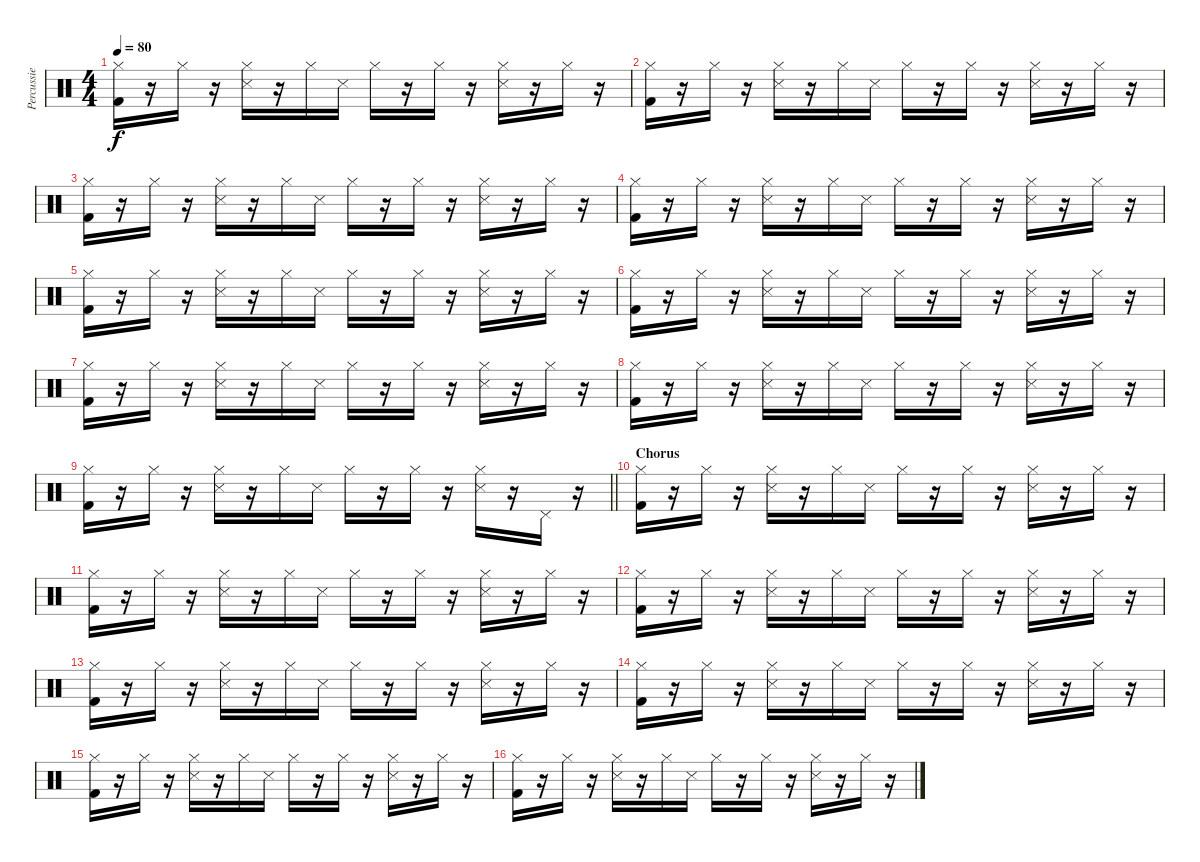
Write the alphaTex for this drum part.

\track ("Percussie" "Percussie") {instrument percussion}
\staff {score}
\articulation defaults
\ts (4 4)
\tempo 80
\clef neutral
\ks c
("Kick (hit) 2" "Hi-Hat (closed)").16{dy f} r.16 "Hi-Hat (closed)".16 r.16 ("Snare (side stick) 3" "Hi-Hat (closed)").16 r.16 "Hi-Hat (closed)".16 "Snare (side stick) 3".16 "Hi-Hat (closed)".16 r.16 "Hi-Hat (closed)".16 r.16 ("Snare (side stick) 3" "Hi-Hat (closed)").16 r.16 "Hi-Hat (closed)".16 r.16 |
("Kick (hit) 2" "Hi-Hat (closed)").16 r.16 "Hi-Hat (closed)".16 r.16 ("Snare (side stick) 3" "Hi-Hat (closed)").16 r.16 "Hi-Hat (closed)".16 "Snare (side stick) 3".16 "Hi-Hat (closed)".16 r.16 "Hi-Hat (closed)".16 r.16 ("Snare (side stick) 3" "Hi-Hat (closed)").16 r.16 "Hi-Hat (closed)".16 r.16 |
("Kick (hit) 2" "Hi-Hat (closed)").16 r.16 "Hi-Hat (closed)".16 r.16 ("Snare (side stick) 3" "Hi-Hat (closed)").16 r.16 "Hi-Hat (closed)".16 "Snare (side stick) 3".16 "Hi-Hat (closed)".16 r.16 "Hi-Hat (closed)".16 r.16 ("Snare (side stick) 3" "Hi-Hat (closed)").16 r.16 "Hi-Hat (closed)".16 r.16 |
("Kick (hit) 2" "Hi-Hat (closed)").16 r.16 "Hi-Hat (closed)".16 r.16 ("Snare (side stick) 3" "Hi-Hat (closed)").16 r.16 "Hi-Hat (closed)".16 "Snare (side stick) 3".16 "Hi-Hat (closed)".16 r.16 "Hi-Hat (closed)".16 r.16 ("Snare (side stick) 3" "Hi-Hat (closed)").16 r.16 "Hi-Hat (closed)".16 r.16 |
("Kick (hit) 2" "Hi-Hat (closed)").16 r.16 "Hi-Hat (closed)".16 r.16 ("Snare (side stick) 3" "Hi-Hat (closed)").16 r.16 "Hi-Hat (closed)".16 "Snare (side stick) 3".16 "Hi-Hat (closed)".16 r.16 "Hi-Hat (closed)".16 r.16 ("Snare (side stick) 3" "Hi-Hat (closed)").16 r.16 "Hi-Hat (closed)".16 r.16 |
("Kick (hit) 2" "Hi-Hat (closed)").16 r.16 "Hi-Hat (closed)".16 r.16 ("Snare (side stick) 3" "Hi-Hat (closed)").16 r.16 "Hi-Hat (closed)".16 "Snare (side stick) 3".16 "Hi-Hat (closed)".16 r.16 "Hi-Hat (closed)".16 r.16 ("Snare (side stick) 3" "Hi-Hat (closed)").16 r.16 "Hi-Hat (closed)".16 r.16 |
("Kick (hit) 2" "Hi-Hat (closed)").16 r.16 "Hi-Hat (closed)".16 r.16 ("Snare (side stick) 3" "Hi-Hat (closed)").16 r.16 "Hi-Hat (closed)".16 "Snare (side stick) 3".16 "Hi-Hat (closed)".16 r.16 "Hi-Hat (closed)".16 r.16 ("Snare (side stick) 3" "Hi-Hat (closed)").16 r.16 "Hi-Hat (closed)".16 r.16 |
("Kick (hit) 2" "Hi-Hat (closed)").16 r.16 "Hi-Hat (closed)".16 r.16 ("Snare (side stick) 3" "Hi-Hat (closed)").16 r.16 "Hi-Hat (closed)".16 "Snare (side stick) 3".16 "Hi-Hat (closed)".16 r.16 "Hi-Hat (closed)".16 r.16 ("Snare (side stick) 3" "Hi-Hat (closed)").16 r.16 "Hi-Hat (closed)".16 r.16 |
\barLineRight lightlight
("Kick (hit) 2" "Hi-Hat (closed)").16 r.16 "Hi-Hat (closed)".16 r.16 ("Snare (side stick) 3" "Hi-Hat (closed)").16 r.16 "Hi-Hat (closed)".16 "Snare (side stick) 3".16 "Hi-Hat (closed)".16 r.16 "Hi-Hat (closed)".16 r.16 ("Snare (side stick) 3" "Hi-Hat (closed)").16 r.16 "Pedal Hi-Hat (hit)".16 r.16 |
\section ("" "Chorus")
("Kick (hit) 2" "Hi-Hat (closed)").16 r.16 "Hi-Hat (closed)".16 r.16 ("Snare (side stick) 3" "Hi-Hat (closed)").16 r.16 "Hi-Hat (closed)".16 "Snare (side stick) 3".16 "Hi-Hat (closed)".16 r.16 "Hi-Hat (closed)".16 r.16 ("Snare (side stick) 3" "Hi-Hat (closed)").16 r.16 "Hi-Hat (closed)".16 r.16 |
("Kick (hit) 2" "Hi-Hat (closed)").16 r.16 "Hi-Hat (closed)".16 r.16 ("Snare (side stick) 3" "Hi-Hat (closed)").16 r.16 "Hi-Hat (closed)".16 "Snare (side stick) 3".16 "Hi-Hat (closed)".16 r.16 "Hi-Hat (closed)".16 r.16 ("Snare (side stick) 3" "Hi-Hat (closed)").16 r.16 "Hi-Hat (closed)".16 r.16 |
("Kick (hit) 2" "Hi-Hat (closed)").16 r.16 "Hi-Hat (closed)".16 r.16 ("Snare (side stick) 3" "Hi-Hat (closed)").16 r.16 "Hi-Hat (closed)".16 "Snare (side stick) 3".16 "Hi-Hat (closed)".16 r.16 "Hi-Hat (closed)".16 r.16 ("Snare (side stick) 3" "Hi-Hat (closed)").16 r.16 "Hi-Hat (closed)".16 r.16 |
("Kick (hit) 2" "Hi-Hat (closed)").16 r.16 "Hi-Hat (closed)".16 r.16 ("Snare (side stick) 3" "Hi-Hat (closed)").16 r.16 "Hi-Hat (closed)".16 "Snare (side stick) 3".16 "Hi-Hat (closed)".16 r.16 "Hi-Hat (closed)".16 r.16 ("Snare (side stick) 3" "Hi-Hat (closed)").16 r.16 "Hi-Hat (closed)".16 r.16 |
("Kick (hit) 2" "Hi-Hat (closed)").16 r.16 "Hi-Hat (closed)".16 r.16 ("Snare (side stick) 3" "Hi-Hat (closed)").16 r.16 "Hi-Hat (closed)".16 "Snare (side stick) 3".16 "Hi-Hat (closed)".16 r.16 "Hi-Hat (closed)".16 r.16 ("Snare (side stick) 3" "Hi-Hat (closed)").16 r.16 "Hi-Hat (closed)".16 r.16 |
("Kick (hit) 2" "Hi-Hat (closed)").16 r.16 "Hi-Hat (closed)".16 r.16 ("Snare (side stick) 3" "Hi-Hat (closed)").16 r.16 "Hi-Hat (closed)".16 "Snare (side stick) 3".16 "Hi-Hat (closed)".16 r.16 "Hi-Hat (closed)".16 r.16 ("Snare (side stick) 3" "Hi-Hat (closed)").16 r.16 "Hi-Hat (closed)".16 r.16 |
("Kick (hit) 2" "Hi-Hat (closed)").16 r.16 "Hi-Hat (closed)".16 r.16 ("Snare (side stick) 3" "Hi-Hat (closed)").16 r.16 "Hi-Hat (closed)".16 "Snare (side stick) 3".16 "Hi-Hat (closed)".16 r.16 "Hi-Hat (closed)".16 r.16 ("Snare (side stick) 3" "Hi-Hat (closed)").16 r.16 "Hi-Hat (closed)".16 r.16
